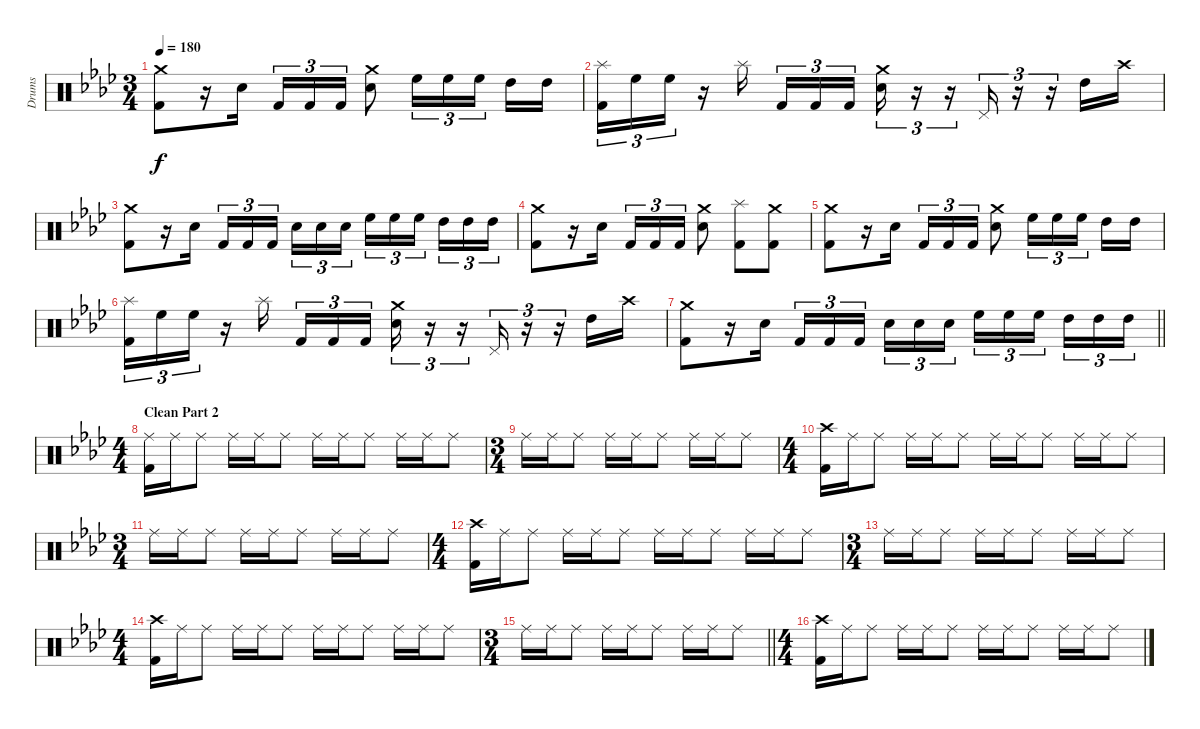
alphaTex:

\bracketExtendMode groupsimilarinstruments
\otherSystemsTrackNameOrientation horizontal
\track ("Guyot Begin-Benoit" "Drums") {instrument percussion}
\staff {score}
\articulation defaults
\ts (3 4)
\tempo 180
\clef neutral
\ks ab
("Crash medium (hit)"{acc forcenatural} "Kick (hit) 2"{acc forcenatural}).8{dy f beam Down} r.16{beam Down} "Snare (hit) 2"{acc forcenatural}.16{beam Down} "Kick (hit) 2"{acc forcenatural}.16{tu (3 2) beam Up} "Kick (hit) 2"{acc forcenatural}.16{tu (3 2) beam Up} "Kick (hit) 2"{acc forcenatural}.16{tu (3 2) beam Up} ("Crash medium (hit)"{acc forcenatural} "Snare (hit) 2"{acc forcenatural}).8{beam Down} "High Floor Tom (hit)"{acc forcenatural}.16{tu (3 2) beam Down} "High Floor Tom (hit)"{acc forcenatural}.16{tu (3 2) beam Down} "High Floor Tom (hit)"{acc forcenatural}.16{tu (3 2) beam Down} "High Tom (hit)"{acc forcenatural}.16{beam Down} "High Tom (hit)"{acc forcenatural}.16{beam Down} |
("Splash (hit)"{acc forcenatural} "Kick (hit) 2"{acc forcenatural}).16{tu (3 2) beam Down} "High Floor Tom (hit)"{acc forcenatural}.16{tu (3 2) beam Down} "High Floor Tom (hit)"{acc forcenatural}.16{tu (3 2) beam Down} r.16{beam Down} "Splash (hit)"{acc forcenatural}.16{beam Down} "Kick (hit) 2"{acc forcenatural}.16{tu (3 2) beam Up} "Kick (hit) 2"{acc forcenatural}.16{tu (3 2) beam Up} "Kick (hit) 2"{acc forcenatural}.16{tu (3 2) beam Up} ("Crash medium (hit)"{acc forcenatural} "Snare (hit) 2"{acc forcenatural}).16{tu (3 2) beam Down} r.16{tu (3 2) beam Down} r.16{tu (3 2) beam Down} "Pedal Hi-Hat (hit)"{acc forcenatural}.16{tu (3 2) beam Up} r.16{tu (3 2) beam Up} r.16{tu (3 2) beam Up} "High Tom (hit)"{acc forcenatural}.16{beam Down} "Crash high (hit)"{acc forcenatural}.16{beam Down} |
("Crash medium (hit)"{acc forcenatural} "Kick (hit) 2"{acc forcenatural}).8{beam Down} r.16{beam Down} "Snare (hit) 2"{acc forcenatural}.16{beam Down} "Kick (hit) 2"{acc forcenatural}.16{tu (3 2) beam Up} "Kick (hit) 2"{acc forcenatural}.16{tu (3 2) beam Up} "Kick (hit) 2"{acc forcenatural}.16{tu (3 2) beam Up} "Snare (hit) 2"{acc forcenatural}.16{tu (3 2) beam Down} "Snare (hit) 2"{acc forcenatural}.16{tu (3 2) beam Down} "Snare (hit) 2"{acc forcenatural}.16{tu (3 2) beam Down} "High Floor Tom (hit)"{acc forcenatural}.16{tu (3 2) beam Down} "High Floor Tom (hit)"{acc forcenatural}.16{tu (3 2) beam Down} "High Floor Tom (hit)"{acc forcenatural}.16{tu (3 2) beam Down} "High Tom (hit)"{acc forcenatural}.16{tu (3 2) beam Down} "High Tom (hit)"{acc forcenatural}.16{tu (3 2) beam Down} "High Tom (hit)"{acc forcenatural}.16{tu (3 2) beam Down} |
("Crash medium (hit)"{acc forcenatural} "Kick (hit) 2"{acc forcenatural}).8{beam Down} r.16{beam Down} "Snare (hit) 2"{acc forcenatural}.16{beam Down} "Kick (hit) 2"{acc forcenatural}.16{tu (3 2) beam Up} "Kick (hit) 2"{acc forcenatural}.16{tu (3 2) beam Up} "Kick (hit) 2"{acc forcenatural}.16{tu (3 2) beam Up} ("Crash medium (hit)"{acc forcenatural} "Snare (hit) 2"{acc forcenatural}).8{beam Down} ("Splash (hit)"{acc forcenatural} "Kick (hit) 2"{acc forcenatural}).8{beam Down} ("Crash medium (hit)"{acc forcenatural} "Kick (hit) 2"{acc forcenatural}).8{beam Down} |
("Crash medium (hit)"{acc forcenatural} "Kick (hit) 2"{acc forcenatural}).8{beam Down} r.16{beam Down} "Snare (hit) 2"{acc forcenatural}.16{beam Down} "Kick (hit) 2"{acc forcenatural}.16{tu (3 2) beam Up} "Kick (hit) 2"{acc forcenatural}.16{tu (3 2) beam Up} "Kick (hit) 2"{acc forcenatural}.16{tu (3 2) beam Up} ("Crash medium (hit)"{acc forcenatural} "Snare (hit) 2"{acc forcenatural}).8{beam Down} "High Floor Tom (hit)"{acc forcenatural}.16{tu (3 2) beam Down} "High Floor Tom (hit)"{acc forcenatural}.16{tu (3 2) beam Down} "High Floor Tom (hit)"{acc forcenatural}.16{tu (3 2) beam Down} "High Tom (hit)"{acc forcenatural}.16{beam Down} "High Tom (hit)"{acc forcenatural}.16{beam Down} |
("Splash (hit)"{acc forcenatural} "Kick (hit) 2"{acc forcenatural}).16{tu (3 2) beam Down} "High Floor Tom (hit)"{acc forcenatural}.16{tu (3 2) beam Down} "High Floor Tom (hit)"{acc forcenatural}.16{tu (3 2) beam Down} r.16{beam Down} "Splash (hit)"{acc forcenatural}.16{beam Down} "Kick (hit) 2"{acc forcenatural}.16{tu (3 2) beam Up} "Kick (hit) 2"{acc forcenatural}.16{tu (3 2) beam Up} "Kick (hit) 2"{acc forcenatural}.16{tu (3 2) beam Up} ("Crash medium (hit)"{acc forcenatural} "Snare (hit) 2"{acc forcenatural}).16{tu (3 2) beam Down} r.16{tu (3 2) beam Down} r.16{tu (3 2) beam Down} "Pedal Hi-Hat (hit)"{acc forcenatural}.16{tu (3 2) beam Up} r.16{tu (3 2) beam Up} r.16{tu (3 2) beam Up} "High Tom (hit)"{acc forcenatural}.16{beam Down} "Crash high (hit)"{acc forcenatural}.16{beam Down} |
\barLineRight lightlight
("Crash medium (hit)"{acc forcenatural} "Kick (hit) 2"{acc forcenatural}).8{beam Down} r.16{beam Down} "Snare (hit) 2"{acc forcenatural}.16{beam Down} "Kick (hit) 2"{acc forcenatural}.16{tu (3 2) beam Up} "Kick (hit) 2"{acc forcenatural}.16{tu (3 2) beam Up} "Kick (hit) 2"{acc forcenatural}.16{tu (3 2) beam Up} "Snare (hit) 2"{acc forcenatural}.16{tu (3 2) beam Down} "Snare (hit) 2"{acc forcenatural}.16{tu (3 2) beam Down} "Snare (hit) 2"{acc forcenatural}.16{tu (3 2) beam Down} "High Floor Tom (hit)"{acc forcenatural}.16{tu (3 2) beam Down} "High Floor Tom (hit)"{acc forcenatural}.16{tu (3 2) beam Down} "High Floor Tom (hit)"{acc forcenatural}.16{tu (3 2) beam Down} "High Tom (hit)"{acc forcenatural}.16{tu (3 2) beam Down} "High Tom (hit)"{acc forcenatural}.16{tu (3 2) beam Down} "High Tom (hit)"{acc forcenatural}.16{tu (3 2) beam Down} |
\ts (4 4)
\beaming (8 2 2 2 2)
\section ("" "Clean Part 2")
("Ride (middle)"{acc forcenatural} "Kick (hit) 2"{acc forcenatural}).16{beam Down} "Ride (middle)"{acc forcenatural}.16{beam Down} "Ride (middle)"{acc forcenatural}.8{beam Down} "Ride (middle)"{acc forcenatural}.16{beam Down} "Ride (middle)"{acc forcenatural}.16{beam Down} "Ride (middle)"{acc forcenatural}.8{beam Down} "Ride (middle)"{acc forcenatural}.16{beam Down} "Ride (middle)"{acc forcenatural}.16{beam Down} "Ride (middle)"{acc forcenatural}.8{beam Down} "Ride (middle)"{acc forcenatural}.16{beam Down} "Ride (middle)"{acc forcenatural}.16{beam Down} "Ride (middle)"{acc forcenatural}.8{beam Down} |
\ts (3 4)
\beaming (8 2 2 2 2)
"Ride (middle)"{acc forcenatural}.16{beam Down} "Ride (middle)"{acc forcenatural}.16{beam Down} "Ride (middle)"{acc forcenatural}.8{beam Down} "Ride (middle)"{acc forcenatural}.16{beam Down} "Ride (middle)"{acc forcenatural}.16{beam Down} "Ride (middle)"{acc forcenatural}.8{beam Down} "Ride (middle)"{acc forcenatural}.16{beam Down} "Ride (middle)"{acc forcenatural}.16{beam Down} "Ride (middle)"{acc forcenatural}.8{beam Down} |
\ts (4 4)
\beaming (8 2 2 2 2)
("Crash high (hit)"{acc forcenatural} "Kick (hit) 2"{acc forcenatural}).16{beam Down} "Ride (middle)"{acc forcenatural}.16{beam Down} "Ride (middle)"{acc forcenatural}.8{beam Down} "Ride (middle)"{acc forcenatural}.16{beam Down} "Ride (middle)"{acc forcenatural}.16{beam Down} "Ride (middle)"{acc forcenatural}.8{beam Down} "Ride (middle)"{acc forcenatural}.16{beam Down} "Ride (middle)"{acc forcenatural}.16{beam Down} "Ride (middle)"{acc forcenatural}.8{beam Down} "Ride (middle)"{acc forcenatural}.16{beam Down} "Ride (middle)"{acc forcenatural}.16{beam Down} "Ride (middle)"{acc forcenatural}.8{beam Down} |
\ts (3 4)
\beaming (8 2 2 2 2)
"Ride (middle)"{acc forcenatural}.16{beam Down} "Ride (middle)"{acc forcenatural}.16{beam Down} "Ride (middle)"{acc forcenatural}.8{beam Down} "Ride (middle)"{acc forcenatural}.16{beam Down} "Ride (middle)"{acc forcenatural}.16{beam Down} "Ride (middle)"{acc forcenatural}.8{beam Down} "Ride (middle)"{acc forcenatural}.16{beam Down} "Ride (middle)"{acc forcenatural}.16{beam Down} "Ride (middle)"{acc forcenatural}.8{beam Down} |
\ts (4 4)
\beaming (8 2 2 2 2)
("Crash high (hit)"{acc forcenatural} "Kick (hit) 2"{acc forcenatural}).16{beam Down} "Ride (middle)"{acc forcenatural}.16{beam Down} "Ride (middle)"{acc forcenatural}.8{beam Down} "Ride (middle)"{acc forcenatural}.16{beam Down} "Ride (middle)"{acc forcenatural}.16{beam Down} "Ride (middle)"{acc forcenatural}.8{beam Down} "Ride (middle)"{acc forcenatural}.16{beam Down} "Ride (middle)"{acc forcenatural}.16{beam Down} "Ride (middle)"{acc forcenatural}.8{beam Down} "Ride (middle)"{acc forcenatural}.16{beam Down} "Ride (middle)"{acc forcenatural}.16{beam Down} "Ride (middle)"{acc forcenatural}.8{beam Down} |
\ts (3 4)
\beaming (8 2 2 2 2)
"Ride (middle)"{acc forcenatural}.16{beam Down} "Ride (middle)"{acc forcenatural}.16{beam Down} "Ride (middle)"{acc forcenatural}.8{beam Down} "Ride (middle)"{acc forcenatural}.16{beam Down} "Ride (middle)"{acc forcenatural}.16{beam Down} "Ride (middle)"{acc forcenatural}.8{beam Down} "Ride (middle)"{acc forcenatural}.16{beam Down} "Ride (middle)"{acc forcenatural}.16{beam Down} "Ride (middle)"{acc forcenatural}.8{beam Down} |
\ts (4 4)
\beaming (8 2 2 2 2)
("Crash high (hit)"{acc forcenatural} "Kick (hit) 2"{acc forcenatural}).16{beam Down} "Ride (middle)"{acc forcenatural}.16{beam Down} "Ride (middle)"{acc forcenatural}.8{beam Down} "Ride (middle)"{acc forcenatural}.16{beam Down} "Ride (middle)"{acc forcenatural}.16{beam Down} "Ride (middle)"{acc forcenatural}.8{beam Down} "Ride (middle)"{acc forcenatural}.16{beam Down} "Ride (middle)"{acc forcenatural}.16{beam Down} "Ride (middle)"{acc forcenatural}.8{beam Down} "Ride (middle)"{acc forcenatural}.16{beam Down} "Ride (middle)"{acc forcenatural}.16{beam Down} "Ride (middle)"{acc forcenatural}.8{beam Down} |
\ts (3 4)
\beaming (8 2 2 2 2)
\barLineRight lightlight "Ride (middle)"{acc forcenatural}.16{beam Down} "Ride (middle)"{acc forcenatural}.16{beam Down} "Ride (middle)"{acc forcenatural}.8{beam Down} "Ride (middle)"{acc forcenatural}.16{beam Down} "Ride (middle)"{acc forcenatural}.16{beam Down} "Ride (middle)"{acc forcenatural}.8{beam Down} "Ride (middle)"{acc forcenatural}.16{beam Down} "Ride (middle)"{acc forcenatural}.16{beam Down} "Ride (middle)"{acc forcenatural}.8{beam Down}
|
\ts (4 4)
\beaming (8 2 2 2 2)
("Crash high (hit)"{acc forcenatural} "Kick (hit) 2"{acc forcenatural}).16{beam Down} "Ride (middle)"{acc forcenatural}.16{beam Down} "Ride (middle)"{acc forcenatural}.8{beam Down} "Ride (middle)"{acc forcenatural}.16{beam Down} "Ride (middle)"{acc forcenatural}.16{beam Down} "Ride (middle)"{acc forcenatural}.8{beam Down} "Ride (middle)"{acc forcenatural}.16{beam Down} "Ride (middle)"{acc forcenatural}.16{beam Down} "Ride (middle)"{acc forcenatural}.8{beam Down} "Ride (middle)"{acc forcenatural}.16{beam Down} "Ride (middle)"{acc forcenatural}.16{beam Down} "Ride (middle)"{acc forcenatural}.8{beam Down}
